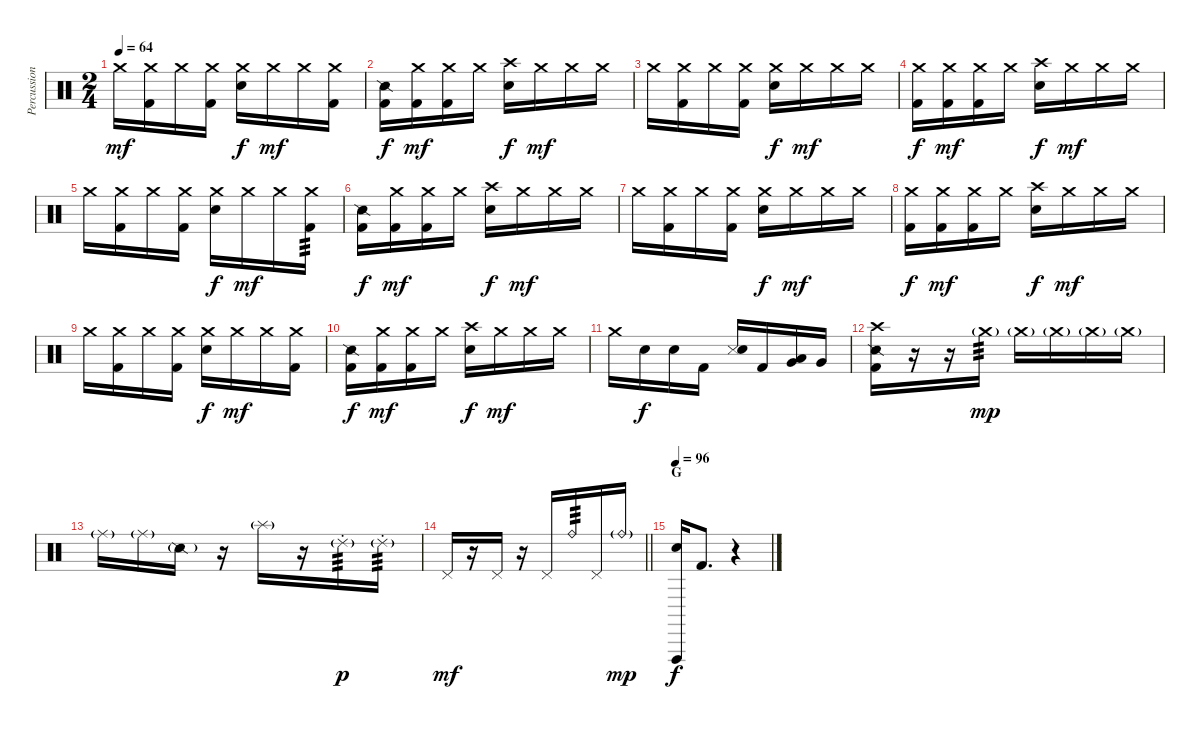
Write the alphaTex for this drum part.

\track ("Percussion" "Percussion") {instrument percussion}
\staff {score}
\articulation defaults
\ts (2 4)
\tempo 64
\clef neutral
\ks c "Crash medium (hit)".16{dy mf}
("Crash medium (hit)" "Kick (hit) 2").16 "Crash medium (hit)".16 ("Crash medium (hit)" "Kick (hit) 2").16 ("Crash medium (hit)" "Snare (hit) 2").16{dy f} "Crash medium (hit)".16{dy mf} "Crash medium (hit)".16 ("Crash medium (hit)" "Kick (hit) 2").16 |
("Snare (side stick) 2" "Kick (hit) 2").16{dy f} ("Crash medium (hit)" "Kick (hit) 2").16{dy mf} ("Crash medium (hit)" "Kick (hit) 2").16 "Crash medium (hit)".16 ("Crash high (hit)" "Snare (hit) 2").16{dy f} "Crash medium (hit)".16{dy mf} "Crash medium (hit)".16 "Crash medium (hit)".16 |
"Crash medium (hit)".16 ("Crash medium (hit)" "Kick (hit) 2").16 "Crash medium (hit)".16 ("Crash medium (hit)" "Kick (hit) 2").16 ("Crash medium (hit)" "Snare (hit) 2").16{dy f} "Crash medium (hit)".16{dy mf} "Crash medium (hit)".16 "Crash medium (hit)".16 |
("Crash medium (hit)" "Kick (hit) 2").16{dy f} ("Crash medium (hit)" "Kick (hit) 2").16{dy mf} ("Crash medium (hit)" "Kick (hit) 2").16 "Crash medium (hit)".16 ("Crash high (hit)" "Snare (hit) 2").16{dy f} "Crash medium (hit)".16{dy mf} "Crash medium (hit)".16 "Crash medium (hit)".16 |
"Crash medium (hit)".16 ("Crash medium (hit)" "Kick (hit) 2").16 "Crash medium (hit)".16 ("Crash medium (hit)" "Kick (hit) 2").16 ("Crash medium (hit)" "Snare (hit) 2").16{dy f} "Crash medium (hit)".16{dy mf} "Crash medium (hit)".16 ("Crash medium (hit)" "Kick (hit) 2").16{tp 3} |
("Snare (side stick) 2" "Kick (hit) 2").16{dy f} ("Crash medium (hit)" "Kick (hit) 2").16{dy mf} ("Crash medium (hit)" "Kick (hit) 2").16 "Crash medium (hit)".16 ("Crash high (hit)" "Snare (hit) 2").16{dy f} "Crash medium (hit)".16{dy mf} "Crash medium (hit)".16 "Crash medium (hit)".16 |
"Crash medium (hit)".16 ("Crash medium (hit)" "Kick (hit) 2").16 "Crash medium (hit)".16 ("Crash medium (hit)" "Kick (hit) 2").16 ("Crash medium (hit)" "Snare (hit) 2").16{dy f} "Crash medium (hit)".16{dy mf} "Crash medium (hit)".16 "Crash medium (hit)".16 |
("Crash medium (hit)" "Kick (hit) 2").16{dy f} ("Crash medium (hit)" "Kick (hit) 2").16{dy mf} ("Crash medium (hit)" "Kick (hit) 2").16 "Crash medium (hit)".16 ("Crash high (hit)" "Snare (hit) 2").16{dy f} "Crash medium (hit)".16{dy mf} "Crash medium (hit)".16 "Crash medium (hit)".16 |
"Crash medium (hit)".16 ("Crash medium (hit)" "Kick (hit) 2").16 "Crash medium (hit)".16 ("Crash medium (hit)" "Kick (hit) 2").16 ("Crash medium (hit)" "Snare (hit) 2").16{dy f} "Crash medium (hit)".16{dy mf} "Crash medium (hit)".16 ("Crash medium (hit)" "Kick (hit) 2").16 |
("Snare (side stick) 2" "Kick (hit) 2").16{dy f} ("Crash medium (hit)" "Kick (hit) 2").16{dy mf} ("Crash medium (hit)" "Kick (hit) 2").16 "Crash medium (hit)".16 ("Crash high (hit)" "Snare (hit) 2").16{dy f} "Crash medium (hit)".16{dy mf} "Crash medium (hit)".16 "Crash medium (hit)".16 |
"Crash medium (hit)".16 "Snare (hit) 2".16{dy f} "Snare (hit) 2".16 "Kick (hit) 2".16 ("Metronome (hit)" "Snare (hit) 2").16{bu 60} "Kick (hit) 2".16 ("Low Tom (hit)" "Very Low Tom (hit)").16{bu 60} "Very Low Tom (hit)".16 |
("Crash high (hit)" "Snare (side stick) 2" "Kick (hit) 2").16 r.16 r.16 "Crash medium (hit)"{g}.16{tp 3 dy mp} "Crash medium (hit)"{g}.16 "Crash medium (hit)"{g}.16 "Crash medium (hit)"{g}.16 "Crash medium (hit)"{g}.16 |
"Ride (middle)"{g}.16 "Ride (middle)"{g}.16 "Snare (side stick) 2"{g}.16 r.16 "Splash (hit)"{g}.16 r.16 "Ride (choke) 2"{g}.16{tp 3 dy p} "Ride (choke) 2"{g}.16{tp 3} |
\barLineRight lightlight "Pedal Hi-Hat (hit)".16{dy mf}
r.16 "Pedal Hi-Hat (hit)".16 r.16 "Pedal Hi-Hat (hit)".16 "Ride (bell)".16{tp 3} "Pedal Hi-Hat (hit)".16 "Ride (bell)"{g}.16{dy mp} |
\section ("" "G")
\tempo 96
("Vibraslap (hit)" "Snare (hit) 2").16{dy f} "Kick (hit) 2".8{d} r.4
